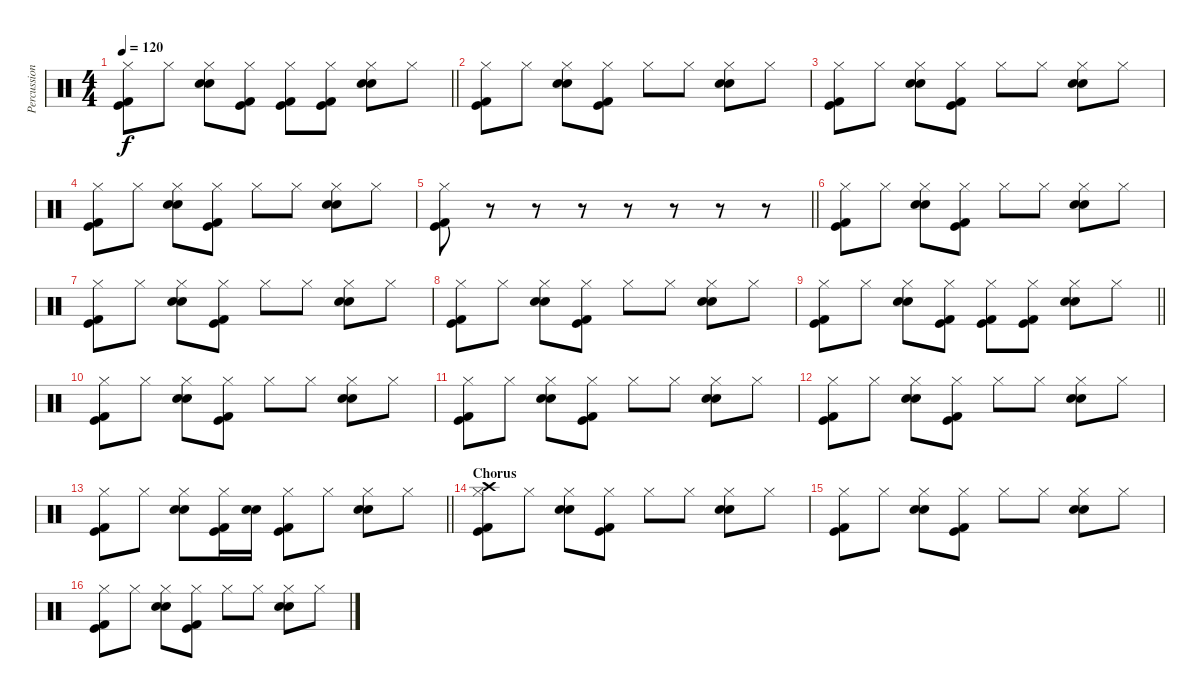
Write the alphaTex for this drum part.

\track ("Percussions" "Percussion") {instrument percussion}
\staff {score}
\articulation defaults
\ts (4 4)
\tempo 120
\clef neutral
\barLineRight lightlight
\ks c
("Hi-Hat (closed)" "Kick (hit)" "Kick (hit) 2").8{dy f} "Hi-Hat (closed)".8 ("Hi-Hat (closed)" "Electric Snare (hit)" "Electric Snare (hit)").8 ("Hi-Hat (closed)" "Kick (hit)" "Kick (hit) 2").8 ("Hi-Hat (closed)" "Kick (hit)" "Kick (hit) 2").8 ("Hi-Hat (closed)" "Kick (hit)" "Kick (hit) 2").8 ("Hi-Hat (closed)" "Electric Snare (hit)" "Electric Snare (hit)").8 "Hi-Hat (closed)".8 |
("Hi-Hat (closed)" "Kick (hit)" "Kick (hit) 2").8 "Hi-Hat (closed)".8 ("Hi-Hat (closed)" "Electric Snare (hit)" "Electric Snare (hit)").8 ("Hi-Hat (closed)" "Kick (hit)" "Kick (hit) 2").8 "Hi-Hat (closed)".8 "Hi-Hat (closed)".8 ("Hi-Hat (closed)" "Electric Snare (hit)" "Electric Snare (hit)").8 "Hi-Hat (closed)".8 |
("Hi-Hat (closed)" "Kick (hit)" "Kick (hit) 2").8 "Hi-Hat (closed)".8 ("Hi-Hat (closed)" "Electric Snare (hit)" "Electric Snare (hit)").8 ("Hi-Hat (closed)" "Kick (hit)" "Kick (hit) 2").8 "Hi-Hat (closed)".8 "Hi-Hat (closed)".8 ("Hi-Hat (closed)" "Electric Snare (hit)" "Electric Snare (hit)").8 "Hi-Hat (closed)".8 |
("Hi-Hat (closed)" "Kick (hit)" "Kick (hit) 2").8 "Hi-Hat (closed)".8 ("Hi-Hat (closed)" "Electric Snare (hit)" "Electric Snare (hit)").8 ("Hi-Hat (closed)" "Kick (hit)" "Kick (hit) 2").8 "Hi-Hat (closed)".8 "Hi-Hat (closed)".8 ("Hi-Hat (closed)" "Electric Snare (hit)" "Electric Snare (hit)").8 "Hi-Hat (closed)".8 |
\barLineRight lightlight
("Hi-Hat (closed)" "Kick (hit)" "Kick (hit) 2").8 r.8 r.8 r.8 r.8 r.8 r.8 r.8 |
("Hi-Hat (closed)" "Kick (hit)" "Kick (hit) 2").8 "Hi-Hat (closed)".8 ("Hi-Hat (closed)" "Electric Snare (hit)" "Electric Snare (hit)").8 ("Hi-Hat (closed)" "Kick (hit)" "Kick (hit) 2").8 "Hi-Hat (closed)".8 "Hi-Hat (closed)".8 ("Hi-Hat (closed)" "Electric Snare (hit)" "Electric Snare (hit)").8 "Hi-Hat (closed)".8 |
("Hi-Hat (closed)" "Kick (hit)" "Kick (hit) 2").8 "Hi-Hat (closed)".8 ("Hi-Hat (closed)" "Electric Snare (hit)" "Electric Snare (hit)").8 ("Hi-Hat (closed)" "Kick (hit)" "Kick (hit) 2").8 "Hi-Hat (closed)".8 "Hi-Hat (closed)".8 ("Hi-Hat (closed)" "Electric Snare (hit)" "Electric Snare (hit)").8 "Hi-Hat (closed)".8 |
("Hi-Hat (closed)" "Kick (hit)" "Kick (hit) 2").8 "Hi-Hat (closed)".8 ("Hi-Hat (closed)" "Electric Snare (hit)" "Electric Snare (hit)").8 ("Hi-Hat (closed)" "Kick (hit)" "Kick (hit) 2").8 "Hi-Hat (closed)".8 "Hi-Hat (closed)".8 ("Hi-Hat (closed)" "Electric Snare (hit)" "Electric Snare (hit)").8 "Hi-Hat (closed)".8 |
\barLineRight lightlight
("Hi-Hat (closed)" "Kick (hit)" "Kick (hit) 2").8 "Hi-Hat (closed)".8 ("Hi-Hat (closed)" "Electric Snare (hit)" "Electric Snare (hit)").8 ("Hi-Hat (closed)" "Kick (hit)" "Kick (hit) 2").8 ("Hi-Hat (closed)" "Kick (hit)" "Kick (hit) 2").8 ("Hi-Hat (closed)" "Kick (hit)" "Kick (hit) 2").8 ("Hi-Hat (closed)" "Electric Snare (hit)" "Electric Snare (hit)").8 "Hi-Hat (closed)".8 |
("Hi-Hat (closed)" "Kick (hit)" "Kick (hit) 2").8 "Hi-Hat (closed)".8 ("Hi-Hat (closed)" "Electric Snare (hit)" "Electric Snare (hit)").8 ("Hi-Hat (closed)" "Kick (hit)" "Kick (hit) 2").8 "Hi-Hat (closed)".8 "Hi-Hat (closed)".8 ("Hi-Hat (closed)" "Electric Snare (hit)" "Electric Snare (hit)").8 "Hi-Hat (closed)".8 |
("Hi-Hat (closed)" "Kick (hit)" "Kick (hit) 2").8 "Hi-Hat (closed)".8 ("Hi-Hat (closed)" "Electric Snare (hit)" "Electric Snare (hit)").8 ("Hi-Hat (closed)" "Kick (hit)" "Kick (hit) 2").8 "Hi-Hat (closed)".8 "Hi-Hat (closed)".8 ("Hi-Hat (closed)" "Electric Snare (hit)" "Electric Snare (hit)").8 "Hi-Hat (closed)".8 |
("Hi-Hat (closed)" "Kick (hit)" "Kick (hit) 2").8 "Hi-Hat (closed)".8 ("Hi-Hat (closed)" "Electric Snare (hit)" "Electric Snare (hit)").8 ("Hi-Hat (closed)" "Kick (hit)" "Kick (hit) 2").8 "Hi-Hat (closed)".8 "Hi-Hat (closed)".8 ("Hi-Hat (closed)" "Electric Snare (hit)" "Electric Snare (hit)").8 "Hi-Hat (closed)".8 |
\barLineRight lightlight
("Hi-Hat (closed)" "Kick (hit)" "Kick (hit) 2").8 "Hi-Hat (closed)".8 ("Hi-Hat (closed)" "Electric Snare (hit)" "Electric Snare (hit)").8 ("Hi-Hat (closed)" "Kick (hit)" "Kick (hit) 2").16 ("Electric Snare (hit)" "Electric Snare (hit)").16 ("Hi-Hat (closed)" "Kick (hit)" "Kick (hit) 2").8 "Hi-Hat (closed)".8 ("Hi-Hat (closed)" "Electric Snare (hit)" "Electric Snare (hit)").8 "Hi-Hat (closed)".8 |
\section ("" "Chorus")
("Crash high (hit)" "Hi-Hat (closed)" "Kick (hit)" "Kick (hit) 2").8 "Hi-Hat (closed)".8 ("Hi-Hat (closed)" "Electric Snare (hit)" "Electric Snare (hit)").8 ("Hi-Hat (closed)" "Kick (hit)" "Kick (hit) 2").8 "Hi-Hat (closed)".8 "Hi-Hat (closed)".8 ("Hi-Hat (closed)" "Electric Snare (hit)" "Electric Snare (hit)").8 "Hi-Hat (closed)".8 |
("Hi-Hat (closed)" "Kick (hit)" "Kick (hit) 2").8 "Hi-Hat (closed)".8 ("Hi-Hat (closed)" "Electric Snare (hit)" "Electric Snare (hit)").8 ("Hi-Hat (closed)" "Kick (hit)" "Kick (hit) 2").8 "Hi-Hat (closed)".8 "Hi-Hat (closed)".8 ("Hi-Hat (closed)" "Electric Snare (hit)" "Electric Snare (hit)").8 "Hi-Hat (closed)".8 |
("Hi-Hat (closed)" "Kick (hit)" "Kick (hit) 2").8 "Hi-Hat (closed)".8 ("Hi-Hat (closed)" "Electric Snare (hit)" "Electric Snare (hit)").8 ("Hi-Hat (closed)" "Kick (hit)" "Kick (hit) 2").8 "Hi-Hat (closed)".8 "Hi-Hat (closed)".8 ("Hi-Hat (closed)" "Electric Snare (hit)" "Electric Snare (hit)").8 "Hi-Hat (closed)".8
